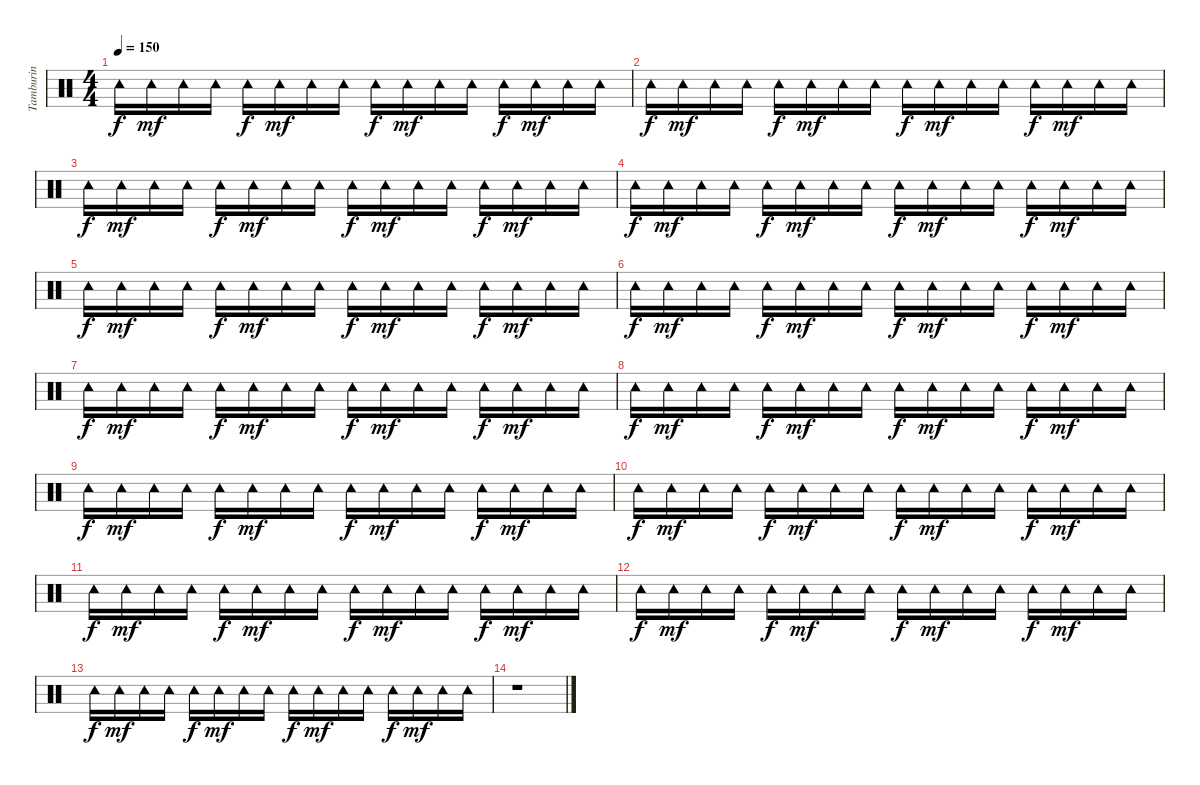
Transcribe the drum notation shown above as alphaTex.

\track ("Tamburin" "Tamburin") {instrument percussion}
\staff {score}
\articulation defaults
\ts (4 4)
\tempo 150
\clef neutral
\ks c "Tambourine (hit)".16{dy f} "Tambourine (hit)".16{dy mf} "Tambourine (hit)".16 "Tambourine (hit)".16 "Tambourine (hit)".16{dy f} "Tambourine (hit)".16{dy mf} "Tambourine (hit)".16 "Tambourine (hit)".16 "Tambourine (hit)".16{dy f} "Tambourine (hit)".16{dy mf} "Tambourine (hit)".16 "Tambourine (hit)".16 "Tambourine (hit)".16{dy f} "Tambourine (hit)".16{dy mf} "Tambourine (hit)".16 "Tambourine (hit)".16
|
"Tambourine (hit)".16{dy f} "Tambourine (hit)".16{dy mf} "Tambourine (hit)".16 "Tambourine (hit)".16 "Tambourine (hit)".16{dy f} "Tambourine (hit)".16{dy mf} "Tambourine (hit)".16 "Tambourine (hit)".16 "Tambourine (hit)".16{dy f} "Tambourine (hit)".16{dy mf} "Tambourine (hit)".16 "Tambourine (hit)".16 "Tambourine (hit)".16{dy f} "Tambourine (hit)".16{dy mf} "Tambourine (hit)".16 "Tambourine (hit)".16 |
"Tambourine (hit)".16{dy f} "Tambourine (hit)".16{dy mf} "Tambourine (hit)".16 "Tambourine (hit)".16 "Tambourine (hit)".16{dy f} "Tambourine (hit)".16{dy mf} "Tambourine (hit)".16 "Tambourine (hit)".16 "Tambourine (hit)".16{dy f} "Tambourine (hit)".16{dy mf} "Tambourine (hit)".16 "Tambourine (hit)".16 "Tambourine (hit)".16{dy f} "Tambourine (hit)".16{dy mf} "Tambourine (hit)".16 "Tambourine (hit)".16 |
"Tambourine (hit)".16{dy f} "Tambourine (hit)".16{dy mf} "Tambourine (hit)".16 "Tambourine (hit)".16 "Tambourine (hit)".16{dy f} "Tambourine (hit)".16{dy mf} "Tambourine (hit)".16 "Tambourine (hit)".16 "Tambourine (hit)".16{dy f} "Tambourine (hit)".16{dy mf} "Tambourine (hit)".16 "Tambourine (hit)".16 "Tambourine (hit)".16{dy f} "Tambourine (hit)".16{dy mf} "Tambourine (hit)".16 "Tambourine (hit)".16 |
"Tambourine (hit)".16{dy f} "Tambourine (hit)".16{dy mf} "Tambourine (hit)".16 "Tambourine (hit)".16 "Tambourine (hit)".16{dy f} "Tambourine (hit)".16{dy mf} "Tambourine (hit)".16 "Tambourine (hit)".16 "Tambourine (hit)".16{dy f} "Tambourine (hit)".16{dy mf} "Tambourine (hit)".16 "Tambourine (hit)".16 "Tambourine (hit)".16{dy f} "Tambourine (hit)".16{dy mf} "Tambourine (hit)".16 "Tambourine (hit)".16 |
"Tambourine (hit)".16{dy f} "Tambourine (hit)".16{dy mf} "Tambourine (hit)".16 "Tambourine (hit)".16 "Tambourine (hit)".16{dy f} "Tambourine (hit)".16{dy mf} "Tambourine (hit)".16 "Tambourine (hit)".16 "Tambourine (hit)".16{dy f} "Tambourine (hit)".16{dy mf} "Tambourine (hit)".16 "Tambourine (hit)".16 "Tambourine (hit)".16{dy f} "Tambourine (hit)".16{dy mf} "Tambourine (hit)".16 "Tambourine (hit)".16 |
"Tambourine (hit)".16{dy f} "Tambourine (hit)".16{dy mf} "Tambourine (hit)".16 "Tambourine (hit)".16 "Tambourine (hit)".16{dy f} "Tambourine (hit)".16{dy mf} "Tambourine (hit)".16 "Tambourine (hit)".16 "Tambourine (hit)".16{dy f} "Tambourine (hit)".16{dy mf} "Tambourine (hit)".16 "Tambourine (hit)".16 "Tambourine (hit)".16{dy f} "Tambourine (hit)".16{dy mf} "Tambourine (hit)".16 "Tambourine (hit)".16 |
"Tambourine (hit)".16{dy f} "Tambourine (hit)".16{dy mf} "Tambourine (hit)".16 "Tambourine (hit)".16 "Tambourine (hit)".16{dy f} "Tambourine (hit)".16{dy mf} "Tambourine (hit)".16 "Tambourine (hit)".16 "Tambourine (hit)".16{dy f} "Tambourine (hit)".16{dy mf} "Tambourine (hit)".16 "Tambourine (hit)".16 "Tambourine (hit)".16{dy f} "Tambourine (hit)".16{dy mf} "Tambourine (hit)".16 "Tambourine (hit)".16 |
"Tambourine (hit)".16{dy f} "Tambourine (hit)".16{dy mf} "Tambourine (hit)".16 "Tambourine (hit)".16 "Tambourine (hit)".16{dy f} "Tambourine (hit)".16{dy mf} "Tambourine (hit)".16 "Tambourine (hit)".16 "Tambourine (hit)".16{dy f} "Tambourine (hit)".16{dy mf} "Tambourine (hit)".16 "Tambourine (hit)".16 "Tambourine (hit)".16{dy f} "Tambourine (hit)".16{dy mf} "Tambourine (hit)".16 "Tambourine (hit)".16 |
"Tambourine (hit)".16{dy f} "Tambourine (hit)".16{dy mf} "Tambourine (hit)".16 "Tambourine (hit)".16 "Tambourine (hit)".16{dy f} "Tambourine (hit)".16{dy mf} "Tambourine (hit)".16 "Tambourine (hit)".16 "Tambourine (hit)".16{dy f} "Tambourine (hit)".16{dy mf} "Tambourine (hit)".16 "Tambourine (hit)".16 "Tambourine (hit)".16{dy f} "Tambourine (hit)".16{dy mf} "Tambourine (hit)".16 "Tambourine (hit)".16 |
"Tambourine (hit)".16{dy f} "Tambourine (hit)".16{dy mf} "Tambourine (hit)".16 "Tambourine (hit)".16 "Tambourine (hit)".16{dy f} "Tambourine (hit)".16{dy mf} "Tambourine (hit)".16 "Tambourine (hit)".16 "Tambourine (hit)".16{dy f} "Tambourine (hit)".16{dy mf} "Tambourine (hit)".16 "Tambourine (hit)".16 "Tambourine (hit)".16{dy f} "Tambourine (hit)".16{dy mf} "Tambourine (hit)".16 "Tambourine (hit)".16 |
"Tambourine (hit)".16{dy f} "Tambourine (hit)".16{dy mf} "Tambourine (hit)".16 "Tambourine (hit)".16 "Tambourine (hit)".16{dy f} "Tambourine (hit)".16{dy mf} "Tambourine (hit)".16 "Tambourine (hit)".16 "Tambourine (hit)".16{dy f} "Tambourine (hit)".16{dy mf} "Tambourine (hit)".16 "Tambourine (hit)".16 "Tambourine (hit)".16{dy f} "Tambourine (hit)".16{dy mf} "Tambourine (hit)".16 "Tambourine (hit)".16 |
"Tambourine (hit)".16{dy f} "Tambourine (hit)".16{dy mf} "Tambourine (hit)".16 "Tambourine (hit)".16 "Tambourine (hit)".16{dy f} "Tambourine (hit)".16{dy mf} "Tambourine (hit)".16 "Tambourine (hit)".16 "Tambourine (hit)".16{dy f} "Tambourine (hit)".16{dy mf} "Tambourine (hit)".16 "Tambourine (hit)".16 "Tambourine (hit)".16{dy f} "Tambourine (hit)".16{dy mf} "Tambourine (hit)".16 "Tambourine (hit)".16 |
r.1
